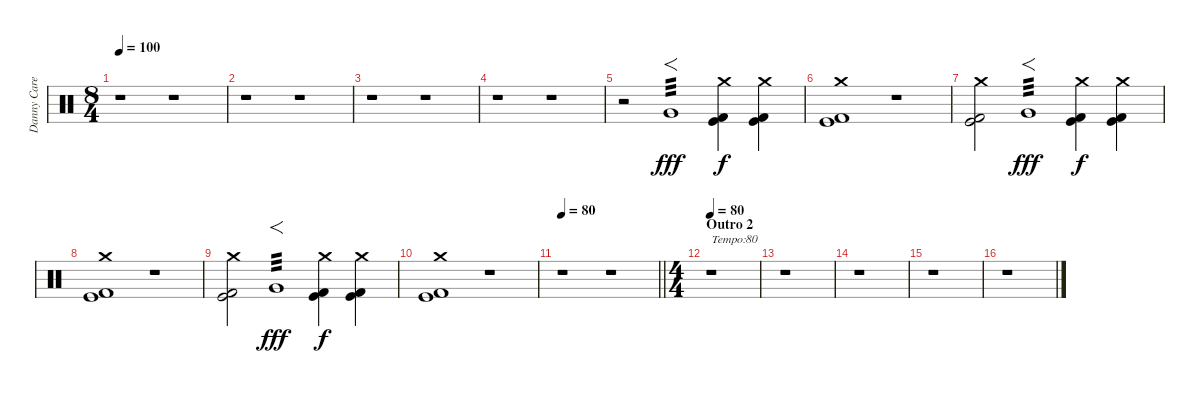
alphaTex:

\track ("Danny Carey - Percussion" "Danny Care") {instrument percussion}
\staff {score}
\articulation defaults
\ts (8 4)
\tempo 100
\clef neutral
\ks c
r.1{dy mp} r.1 |
r.1 r.1 |
r.1 r.1 |
r.1 r.1 |
r.2 "Very Low Tom (hit)".1{f tp 3 dy fff} ("Crash medium (hit)" "Kick (hit)" "Kick (hit) 2").4{dy f} ("Crash medium (hit)" "Kick (hit)" "Kick (hit) 2").4 |
("Crash medium (hit)" "Kick (hit)" "Kick (hit) 2").1 r.1 |
("Crash medium (hit)" "Kick (hit)" "Kick (hit) 2").2 "Very Low Tom (hit)".1{f tp 3 dy fff} ("Crash medium (hit)" "Kick (hit)" "Kick (hit) 2").4{dy f} ("Crash medium (hit)" "Kick (hit)" "Kick (hit) 2").4 |
("Crash medium (hit)" "Kick (hit)" "Kick (hit) 2").1 r.1 |
("Crash medium (hit)" "Kick (hit)" "Kick (hit) 2").2 "Very Low Tom (hit)".1{f tp 3 dy fff} ("Crash medium (hit)" "Kick (hit)" "Kick (hit) 2").4{dy f} ("Crash medium (hit)" "Kick (hit)" "Kick (hit) 2").4 |
("Crash medium (hit)" "Kick (hit)" "Kick (hit) 2").1 r.1 |
\tempo 80
\barLineRight lightlight
r.1 r.1 |
\ts (4 4)
\section ("" "Outro 2")
\tempo 80
r.1{txt "Tempo:80"} |
r.1 |
r.1 |
r.1 |
r.1
